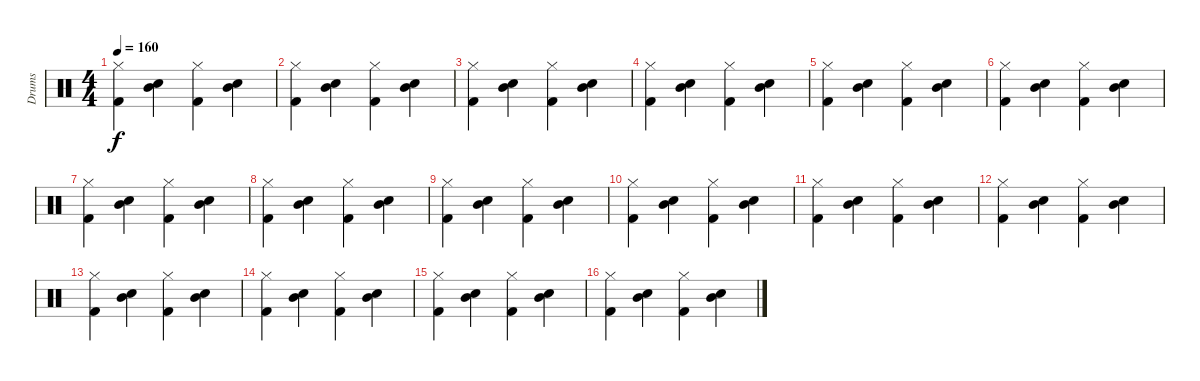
\track ("Drums" "Drums") {instrument percussion}
\staff {score}
\articulation defaults
\ts (4 4)
\tempo 160
\clef neutral
\ks c
("Hi-Hat (closed)" "Kick (hit) 2").4{dy f} ("Snare (hit) 2" "Mid Tom (hit)").4 ("Hi-Hat (closed)" "Kick (hit) 2").4 ("Snare (hit) 2" "Mid Tom (hit)").4 |
("Hi-Hat (closed)" "Kick (hit) 2").4 ("Snare (hit) 2" "Mid Tom (hit)").4 ("Hi-Hat (closed)" "Kick (hit) 2").4 ("Snare (hit) 2" "Mid Tom (hit)").4 |
("Hi-Hat (closed)" "Kick (hit) 2").4 ("Snare (hit) 2" "Mid Tom (hit)").4 ("Hi-Hat (closed)" "Kick (hit) 2").4 ("Snare (hit) 2" "Mid Tom (hit)").4 |
("Hi-Hat (closed)" "Kick (hit) 2").4 ("Snare (hit) 2" "Mid Tom (hit)").4 ("Hi-Hat (closed)" "Kick (hit) 2").4 ("Snare (hit) 2" "Mid Tom (hit)").4 |
("Hi-Hat (closed)" "Kick (hit) 2").4 ("Snare (hit) 2" "Mid Tom (hit)").4 ("Hi-Hat (closed)" "Kick (hit) 2").4 ("Snare (hit) 2" "Mid Tom (hit)").4 |
("Hi-Hat (closed)" "Kick (hit) 2").4 ("Snare (hit) 2" "Mid Tom (hit)").4 ("Hi-Hat (closed)" "Kick (hit) 2").4 ("Snare (hit) 2" "Mid Tom (hit)").4 |
("Hi-Hat (closed)" "Kick (hit) 2").4 ("Snare (hit) 2" "Mid Tom (hit)").4 ("Hi-Hat (closed)" "Kick (hit) 2").4 ("Snare (hit) 2" "Mid Tom (hit)").4 |
("Hi-Hat (closed)" "Kick (hit) 2").4 ("Snare (hit) 2" "Mid Tom (hit)").4 ("Hi-Hat (closed)" "Kick (hit) 2").4 ("Snare (hit) 2" "Mid Tom (hit)").4 |
("Hi-Hat (closed)" "Kick (hit) 2").4 ("Snare (hit) 2" "Mid Tom (hit)").4 ("Hi-Hat (closed)" "Kick (hit) 2").4 ("Snare (hit) 2" "Mid Tom (hit)").4 |
("Hi-Hat (closed)" "Kick (hit) 2").4 ("Snare (hit) 2" "Mid Tom (hit)").4 ("Hi-Hat (closed)" "Kick (hit) 2").4 ("Snare (hit) 2" "Mid Tom (hit)").4 |
("Hi-Hat (closed)" "Kick (hit) 2").4 ("Snare (hit) 2" "Mid Tom (hit)").4 ("Hi-Hat (closed)" "Kick (hit) 2").4 ("Snare (hit) 2" "Mid Tom (hit)").4 |
("Hi-Hat (closed)" "Kick (hit) 2").4 ("Snare (hit) 2" "Mid Tom (hit)").4 ("Hi-Hat (closed)" "Kick (hit) 2").4 ("Snare (hit) 2" "Mid Tom (hit)").4 |
("Hi-Hat (closed)" "Kick (hit) 2").4 ("Snare (hit) 2" "Mid Tom (hit)").4 ("Hi-Hat (closed)" "Kick (hit) 2").4 ("Snare (hit) 2" "Mid Tom (hit)").4 |
("Hi-Hat (closed)" "Kick (hit) 2").4 ("Snare (hit) 2" "Mid Tom (hit)").4 ("Hi-Hat (closed)" "Kick (hit) 2").4 ("Snare (hit) 2" "Mid Tom (hit)").4 |
("Hi-Hat (closed)" "Kick (hit) 2").4 ("Snare (hit) 2" "Mid Tom (hit)").4 ("Hi-Hat (closed)" "Kick (hit) 2").4 ("Snare (hit) 2" "Mid Tom (hit)").4 |
("Hi-Hat (closed)" "Kick (hit) 2").4 ("Snare (hit) 2" "Mid Tom (hit)").4 ("Hi-Hat (closed)" "Kick (hit) 2").4 ("Snare (hit) 2" "Mid Tom (hit)").4
